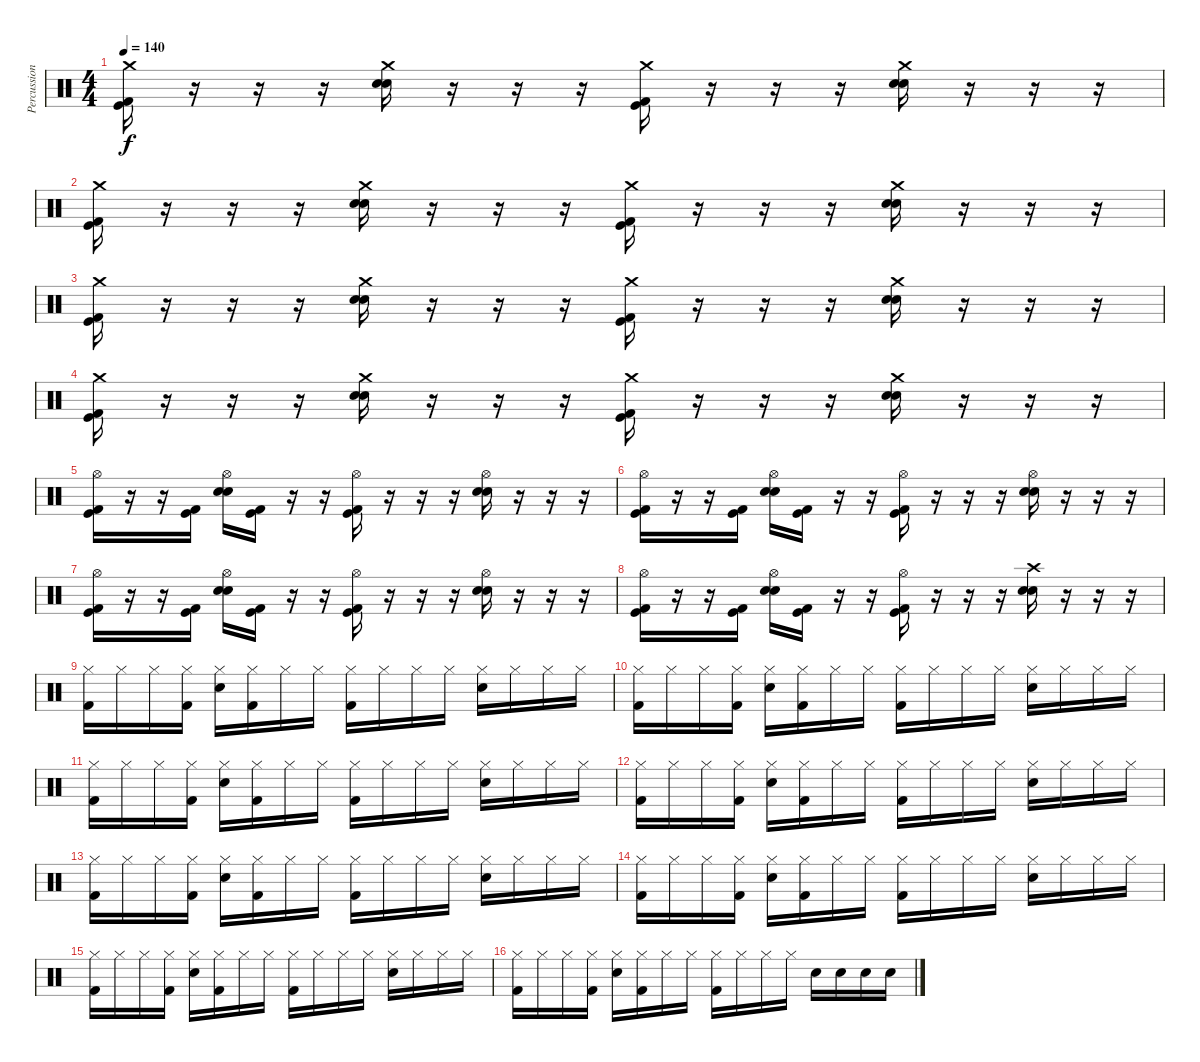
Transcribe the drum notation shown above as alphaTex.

\track ("Percussion" "Percussion") {instrument percussion}
\staff {score}
\articulation defaults
\ts (4 4)
\tempo 140
\clef neutral
\ks c
("Crash medium (hit)" "Kick (hit)" "Kick (hit) 2").16{dy f} r.16 r.16 r.16 ("Crash medium (hit)" "Electric Snare (hit)" "Electric Snare (hit)").16 r.16 r.16 r.16 ("Crash medium (hit)" "Kick (hit)" "Kick (hit) 2").16 r.16 r.16 r.16 ("Crash medium (hit)" "Electric Snare (hit)" "Electric Snare (hit)").16 r.16 r.16 r.16 |
("Crash medium (hit)" "Kick (hit)" "Kick (hit) 2").16 r.16 r.16 r.16 ("Crash medium (hit)" "Electric Snare (hit)" "Electric Snare (hit)").16 r.16 r.16 r.16 ("Crash medium (hit)" "Kick (hit)" "Kick (hit) 2").16 r.16 r.16 r.16 ("Crash medium (hit)" "Electric Snare (hit)" "Electric Snare (hit)").16 r.16 r.16 r.16 |
("Crash medium (hit)" "Kick (hit)" "Kick (hit) 2").16 r.16 r.16 r.16 ("Crash medium (hit)" "Electric Snare (hit)" "Electric Snare (hit)").16 r.16 r.16 r.16 ("Crash medium (hit)" "Kick (hit)" "Kick (hit) 2").16 r.16 r.16 r.16 ("Crash medium (hit)" "Electric Snare (hit)" "Electric Snare (hit)").16 r.16 r.16 r.16 |
("Crash medium (hit)" "Kick (hit)" "Kick (hit) 2").16 r.16 r.16 r.16 ("Crash medium (hit)" "Electric Snare (hit)" "Electric Snare (hit)").16 r.16 r.16 r.16 ("Crash medium (hit)" "Kick (hit)" "Kick (hit) 2").16 r.16 r.16 r.16 ("Crash medium (hit)" "Electric Snare (hit)" "Electric Snare (hit)").16 r.16 r.16 r.16 |
("Hi-Hat (open)" "Kick (hit)" "Kick (hit) 2").16 r.16 r.16 ("Kick (hit)" "Kick (hit) 2").16 ("Hi-Hat (open)" "Electric Snare (hit)" "Electric Snare (hit)").16 ("Kick (hit)" "Kick (hit) 2").16 r.16 r.16 ("Hi-Hat (open)" "Kick (hit)" "Kick (hit) 2").16 r.16 r.16 r.16 ("Hi-Hat (open)" "Electric Snare (hit)" "Electric Snare (hit)").16 r.16 r.16 r.16 |
("Hi-Hat (open)" "Kick (hit)" "Kick (hit) 2").16 r.16 r.16 ("Kick (hit)" "Kick (hit) 2").16 ("Hi-Hat (open)" "Electric Snare (hit)" "Electric Snare (hit)").16 ("Kick (hit)" "Kick (hit) 2").16 r.16 r.16 ("Hi-Hat (open)" "Kick (hit)" "Kick (hit) 2").16 r.16 r.16 r.16 ("Hi-Hat (open)" "Electric Snare (hit)" "Electric Snare (hit)").16 r.16 r.16 r.16 |
("Hi-Hat (open)" "Kick (hit)" "Kick (hit) 2").16 r.16 r.16 ("Kick (hit)" "Kick (hit) 2").16 ("Hi-Hat (open)" "Electric Snare (hit)" "Electric Snare (hit)").16 ("Kick (hit)" "Kick (hit) 2").16 r.16 r.16 ("Hi-Hat (open)" "Kick (hit)" "Kick (hit) 2").16 r.16 r.16 r.16 ("Hi-Hat (open)" "Electric Snare (hit)" "Electric Snare (hit)").16 r.16 r.16 r.16 |
("Hi-Hat (open)" "Kick (hit)" "Kick (hit) 2").16 r.16 r.16 ("Kick (hit)" "Kick (hit) 2").16 ("Hi-Hat (open)" "Electric Snare (hit)" "Electric Snare (hit)").16 ("Kick (hit)" "Kick (hit) 2").16 r.16 r.16 ("Hi-Hat (open)" "Kick (hit)" "Kick (hit) 2").16 r.16 r.16 r.16 ("Crash high (hit)" "Electric Snare (hit)" "Electric Snare (hit)").16 r.16 r.16 r.16 |
("Hi-Hat (closed)" "Kick (hit) 2").16 "Hi-Hat (closed)".16 "Hi-Hat (closed)".16 ("Hi-Hat (closed)" "Kick (hit) 2").16 ("Hi-Hat (closed)" "Electric Snare (hit)").16 ("Hi-Hat (closed)" "Kick (hit) 2").16 "Hi-Hat (closed)".16 "Hi-Hat (closed)".16 ("Hi-Hat (closed)" "Kick (hit) 2").16 "Hi-Hat (closed)".16 "Hi-Hat (closed)".16 "Hi-Hat (closed)".16 ("Hi-Hat (closed)" "Electric Snare (hit)").16 "Hi-Hat (closed)".16 "Hi-Hat (closed)".16 "Hi-Hat (closed)".16 |
("Hi-Hat (closed)" "Kick (hit) 2").16 "Hi-Hat (closed)".16 "Hi-Hat (closed)".16 ("Hi-Hat (closed)" "Kick (hit) 2").16 ("Hi-Hat (closed)" "Electric Snare (hit)").16 ("Hi-Hat (closed)" "Kick (hit) 2").16 "Hi-Hat (closed)".16 "Hi-Hat (closed)".16 ("Hi-Hat (closed)" "Kick (hit) 2").16 "Hi-Hat (closed)".16 "Hi-Hat (closed)".16 "Hi-Hat (closed)".16 ("Hi-Hat (closed)" "Electric Snare (hit)").16 "Hi-Hat (closed)".16 "Hi-Hat (closed)".16 "Hi-Hat (closed)".16 |
("Hi-Hat (closed)" "Kick (hit) 2").16 "Hi-Hat (closed)".16 "Hi-Hat (closed)".16 ("Hi-Hat (closed)" "Kick (hit) 2").16 ("Hi-Hat (closed)" "Electric Snare (hit)").16 ("Hi-Hat (closed)" "Kick (hit) 2").16 "Hi-Hat (closed)".16 "Hi-Hat (closed)".16 ("Hi-Hat (closed)" "Kick (hit) 2").16 "Hi-Hat (closed)".16 "Hi-Hat (closed)".16 "Hi-Hat (closed)".16 ("Hi-Hat (closed)" "Electric Snare (hit)").16 "Hi-Hat (closed)".16 "Hi-Hat (closed)".16 "Hi-Hat (closed)".16 |
("Hi-Hat (closed)" "Kick (hit) 2").16 "Hi-Hat (closed)".16 "Hi-Hat (closed)".16 ("Hi-Hat (closed)" "Kick (hit) 2").16 ("Hi-Hat (closed)" "Electric Snare (hit)").16 ("Hi-Hat (closed)" "Kick (hit) 2").16 "Hi-Hat (closed)".16 "Hi-Hat (closed)".16 ("Hi-Hat (closed)" "Kick (hit) 2").16 "Hi-Hat (closed)".16 "Hi-Hat (closed)".16 "Hi-Hat (closed)".16 ("Hi-Hat (closed)" "Electric Snare (hit)").16 "Hi-Hat (closed)".16 "Hi-Hat (closed)".16 "Hi-Hat (closed)".16 |
("Hi-Hat (closed)" "Kick (hit) 2").16 "Hi-Hat (closed)".16 "Hi-Hat (closed)".16 ("Hi-Hat (closed)" "Kick (hit) 2").16 ("Hi-Hat (closed)" "Electric Snare (hit)").16 ("Hi-Hat (closed)" "Kick (hit) 2").16 "Hi-Hat (closed)".16 "Hi-Hat (closed)".16 ("Hi-Hat (closed)" "Kick (hit) 2").16 "Hi-Hat (closed)".16 "Hi-Hat (closed)".16 "Hi-Hat (closed)".16 ("Hi-Hat (closed)" "Electric Snare (hit)").16 "Hi-Hat (closed)".16 "Hi-Hat (closed)".16 "Hi-Hat (closed)".16 |
("Hi-Hat (closed)" "Kick (hit) 2").16 "Hi-Hat (closed)".16 "Hi-Hat (closed)".16 ("Hi-Hat (closed)" "Kick (hit) 2").16 ("Hi-Hat (closed)" "Electric Snare (hit)").16 ("Hi-Hat (closed)" "Kick (hit) 2").16 "Hi-Hat (closed)".16 "Hi-Hat (closed)".16 ("Hi-Hat (closed)" "Kick (hit) 2").16 "Hi-Hat (closed)".16 "Hi-Hat (closed)".16 "Hi-Hat (closed)".16 ("Hi-Hat (closed)" "Electric Snare (hit)").16 "Hi-Hat (closed)".16 "Hi-Hat (closed)".16 "Hi-Hat (closed)".16 |
("Hi-Hat (closed)" "Kick (hit) 2").16 "Hi-Hat (closed)".16 "Hi-Hat (closed)".16 ("Hi-Hat (closed)" "Kick (hit) 2").16 ("Hi-Hat (closed)" "Electric Snare (hit)").16 ("Hi-Hat (closed)" "Kick (hit) 2").16 "Hi-Hat (closed)".16 "Hi-Hat (closed)".16 ("Hi-Hat (closed)" "Kick (hit) 2").16 "Hi-Hat (closed)".16 "Hi-Hat (closed)".16 "Hi-Hat (closed)".16 ("Hi-Hat (closed)" "Electric Snare (hit)").16 "Hi-Hat (closed)".16 "Hi-Hat (closed)".16 "Hi-Hat (closed)".16 |
("Hi-Hat (closed)" "Kick (hit) 2").16 "Hi-Hat (closed)".16 "Hi-Hat (closed)".16 ("Hi-Hat (closed)" "Kick (hit) 2").16 ("Hi-Hat (closed)" "Electric Snare (hit)").16 ("Hi-Hat (closed)" "Kick (hit) 2").16 "Hi-Hat (closed)".16 "Hi-Hat (closed)".16 ("Hi-Hat (closed)" "Kick (hit) 2").16 "Hi-Hat (closed)".16 "Hi-Hat (closed)".16 "Hi-Hat (closed)".16 "Electric Snare (hit)".16 "Electric Snare (hit)".16 "Electric Snare (hit)".16 "Electric Snare (hit)".16
